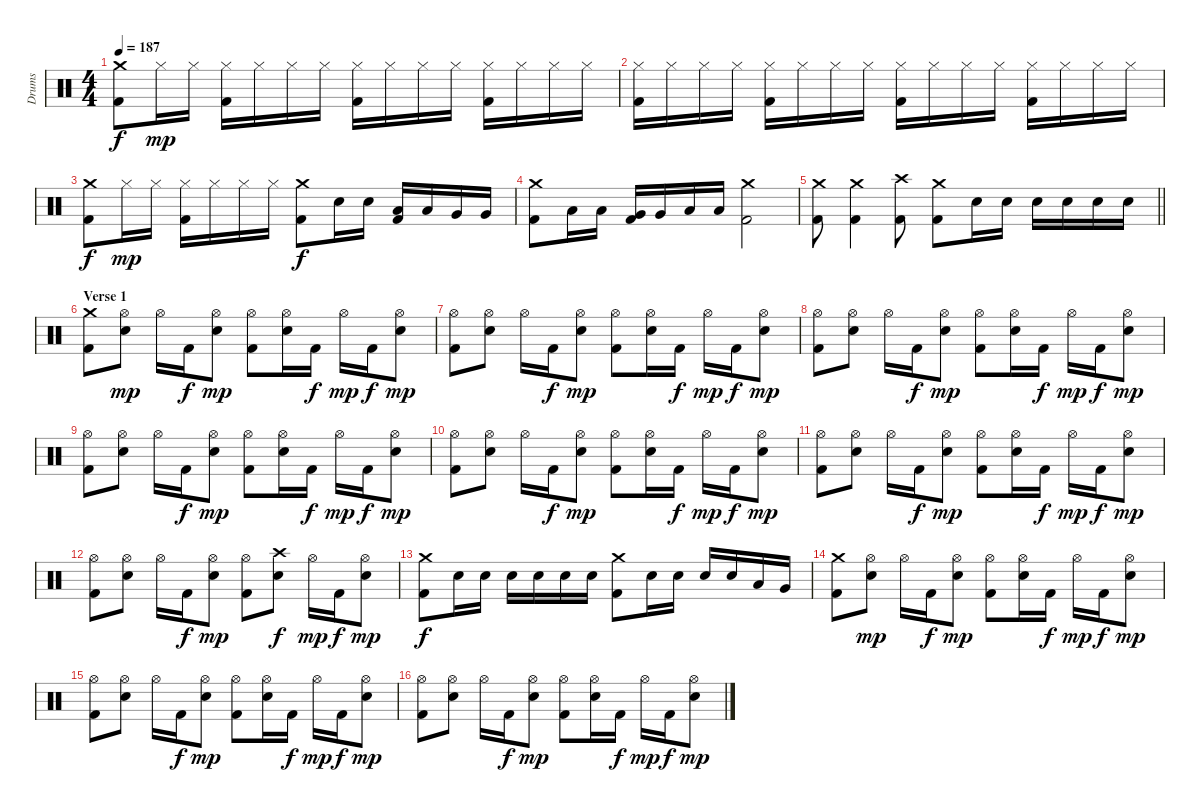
\track ("Drums" "Drums") {instrument percussion}
\staff {score}
\articulation defaults
\ts (4 4)
\tempo 187
\clef neutral
\ks c
("Crash medium (hit)" "Kick (hit) 2").8{dy f} "Hi-Hat (closed)".16{dy mp} "Hi-Hat (closed)".16 ("Hi-Hat (closed)" "Kick (hit) 2").16 "Hi-Hat (closed)".16 "Hi-Hat (closed)".16 "Hi-Hat (closed)".16 ("Hi-Hat (closed)" "Kick (hit) 2").16 "Hi-Hat (closed)".16 "Hi-Hat (closed)".16 "Hi-Hat (closed)".16 ("Hi-Hat (closed)" "Kick (hit) 2").16 "Hi-Hat (closed)".16 "Hi-Hat (closed)".16 "Hi-Hat (closed)".16 |
("Hi-Hat (closed)" "Kick (hit) 2").16 "Hi-Hat (closed)".16 "Hi-Hat (closed)".16 "Hi-Hat (closed)".16 ("Hi-Hat (closed)" "Kick (hit) 2").16 "Hi-Hat (closed)".16 "Hi-Hat (closed)".16 "Hi-Hat (closed)".16 ("Hi-Hat (closed)" "Kick (hit) 2").16 "Hi-Hat (closed)".16 "Hi-Hat (closed)".16 "Hi-Hat (closed)".16 ("Hi-Hat (closed)" "Kick (hit) 2").16 "Hi-Hat (closed)".16 "Hi-Hat (closed)".16 "Hi-Hat (closed)".16 |
("Crash medium (hit)" "Kick (hit) 2").8{dy f} "Hi-Hat (closed)".16{dy mp} "Hi-Hat (closed)".16 ("Hi-Hat (closed)" "Kick (hit) 2").16 "Hi-Hat (closed)".16 "Hi-Hat (closed)".16 "Hi-Hat (closed)".16 ("Crash medium (hit)" "Kick (hit) 2").8{dy f} "Snare (hit) 2".16 "Snare (hit) 2".16 ("Low Tom (hit)" "Kick (hit) 2").16 "Low Tom (hit)".16 "Very Low Tom (hit)".16 "Very Low Tom (hit)".16 |
("Crash medium (hit)" "Kick (hit) 2").8 "Low Tom (hit)".16 "Low Tom (hit)".16 ("Very Low Tom (hit)" "Kick (hit) 2").16 "Very Low Tom (hit)".16 "Low Floor Tom (hit)".16 "Low Floor Tom (hit)".16 ("Crash medium (hit)" "Kick (hit) 2").2 |
\barLineRight lightlight
("Crash medium (hit)" "Kick (hit) 2").8 ("Crash medium (hit)" "Kick (hit) 2").4 ("Crash high (hit)" "Kick (hit) 2").8 ("Crash medium (hit)" "Kick (hit) 2").8 "Snare (hit) 2".16 "Snare (hit) 2".16 "Snare (hit) 2".16 "Snare (hit) 2".16 "Snare (hit) 2".16 "Snare (hit) 2".16 |
\section ("" "Verse 1")
("Crash medium (hit)" "Kick (hit) 2").8 ("Hi-Hat (open)" "Snare (hit) 2").8{dy mp} "Hi-Hat (open)".16 "Kick (hit) 2".16{dy f} ("Hi-Hat (open)" "Snare (hit) 2").8{dy mp} ("Hi-Hat (open)" "Kick (hit) 2").8 ("Hi-Hat (open)" "Snare (hit) 2").16 "Kick (hit) 2".16{dy f} "Hi-Hat (open)".16{dy mp} "Kick (hit) 2".16{dy f} ("Hi-Hat (open)" "Snare (hit) 2").8{dy mp} |
("Hi-Hat (open)" "Kick (hit) 2").8 ("Hi-Hat (open)" "Snare (hit) 2").8 "Hi-Hat (open)".16 "Kick (hit) 2".16{dy f} ("Hi-Hat (open)" "Snare (hit) 2").8{dy mp} ("Hi-Hat (open)" "Kick (hit) 2").8 ("Hi-Hat (open)" "Snare (hit) 2").16 "Kick (hit) 2".16{dy f} "Hi-Hat (open)".16{dy mp} "Kick (hit) 2".16{dy f} ("Hi-Hat (open)" "Snare (hit) 2").8{dy mp} |
("Hi-Hat (open)" "Kick (hit) 2").8 ("Hi-Hat (open)" "Snare (hit) 2").8 "Hi-Hat (open)".16 "Kick (hit) 2".16{dy f} ("Hi-Hat (open)" "Snare (hit) 2").8{dy mp} ("Hi-Hat (open)" "Kick (hit) 2").8 ("Hi-Hat (open)" "Snare (hit) 2").16 "Kick (hit) 2".16{dy f} "Hi-Hat (open)".16{dy mp} "Kick (hit) 2".16{dy f} ("Hi-Hat (open)" "Snare (hit) 2").8{dy mp} |
("Hi-Hat (open)" "Kick (hit) 2").8 ("Hi-Hat (open)" "Snare (hit) 2").8 "Hi-Hat (open)".16 "Kick (hit) 2".16{dy f} ("Hi-Hat (open)" "Snare (hit) 2").8{dy mp} ("Hi-Hat (open)" "Kick (hit) 2").8 ("Hi-Hat (open)" "Snare (hit) 2").16 "Kick (hit) 2".16{dy f} "Hi-Hat (open)".16{dy mp} "Kick (hit) 2".16{dy f} ("Hi-Hat (open)" "Snare (hit) 2").8{dy mp} |
("Hi-Hat (open)" "Kick (hit) 2").8 ("Hi-Hat (open)" "Snare (hit) 2").8 "Hi-Hat (open)".16 "Kick (hit) 2".16{dy f} ("Hi-Hat (open)" "Snare (hit) 2").8{dy mp} ("Hi-Hat (open)" "Kick (hit) 2").8 ("Hi-Hat (open)" "Snare (hit) 2").16 "Kick (hit) 2".16{dy f} "Hi-Hat (open)".16{dy mp} "Kick (hit) 2".16{dy f} ("Hi-Hat (open)" "Snare (hit) 2").8{dy mp} |
("Hi-Hat (open)" "Kick (hit) 2").8 ("Hi-Hat (open)" "Snare (hit) 2").8 "Hi-Hat (open)".16 "Kick (hit) 2".16{dy f} ("Hi-Hat (open)" "Snare (hit) 2").8{dy mp} ("Hi-Hat (open)" "Kick (hit) 2").8 ("Hi-Hat (open)" "Snare (hit) 2").16 "Kick (hit) 2".16{dy f} "Hi-Hat (open)".16{dy mp} "Kick (hit) 2".16{dy f} ("Hi-Hat (open)" "Snare (hit) 2").8{dy mp} |
("Hi-Hat (open)" "Kick (hit) 2").8 ("Hi-Hat (open)" "Snare (hit) 2").8 "Hi-Hat (open)".16 "Kick (hit) 2".16{dy f} ("Hi-Hat (open)" "Snare (hit) 2").8{dy mp} ("Hi-Hat (open)" "Kick (hit) 2").8 ("Crash high (hit)" "Snare (hit) 2").8{dy f} "Hi-Hat (open)".16{dy mp} "Kick (hit) 2".16{dy f} ("Hi-Hat (open)" "Snare (hit) 2").8{dy mp} |
("Crash medium (hit)" "Kick (hit) 2").8{dy f} "Snare (hit) 2".16 "Snare (hit) 2".16 "Snare (hit) 2".16 "Snare (hit) 2".16 "Snare (hit) 2".16 "Snare (hit) 2".16 ("Crash medium (hit)" "Kick (hit) 2").8 "Snare (hit) 2".16 "Snare (hit) 2".16 "Snare (hit) 2".16 "Snare (hit) 2".16 "Low Tom (hit)".16 "Very Low Tom (hit)".16 |
("Crash medium (hit)" "Kick (hit) 2").8 ("Hi-Hat (open)" "Snare (hit) 2").8{dy mp} "Hi-Hat (open)".16 "Kick (hit) 2".16{dy f} ("Hi-Hat (open)" "Snare (hit) 2").8{dy mp} ("Hi-Hat (open)" "Kick (hit) 2").8 ("Hi-Hat (open)" "Snare (hit) 2").16 "Kick (hit) 2".16{dy f} "Hi-Hat (open)".16{dy mp} "Kick (hit) 2".16{dy f} ("Hi-Hat (open)" "Snare (hit) 2").8{dy mp} |
("Hi-Hat (open)" "Kick (hit) 2").8 ("Hi-Hat (open)" "Snare (hit) 2").8 "Hi-Hat (open)".16 "Kick (hit) 2".16{dy f} ("Hi-Hat (open)" "Snare (hit) 2").8{dy mp} ("Hi-Hat (open)" "Kick (hit) 2").8 ("Hi-Hat (open)" "Snare (hit) 2").16 "Kick (hit) 2".16{dy f} "Hi-Hat (open)".16{dy mp} "Kick (hit) 2".16{dy f} ("Hi-Hat (open)" "Snare (hit) 2").8{dy mp} |
("Hi-Hat (open)" "Kick (hit) 2").8 ("Hi-Hat (open)" "Snare (hit) 2").8 "Hi-Hat (open)".16 "Kick (hit) 2".16{dy f} ("Hi-Hat (open)" "Snare (hit) 2").8{dy mp} ("Hi-Hat (open)" "Kick (hit) 2").8 ("Hi-Hat (open)" "Snare (hit) 2").16 "Kick (hit) 2".16{dy f} "Hi-Hat (open)".16{dy mp} "Kick (hit) 2".16{dy f} ("Hi-Hat (open)" "Snare (hit) 2").8{dy mp}
